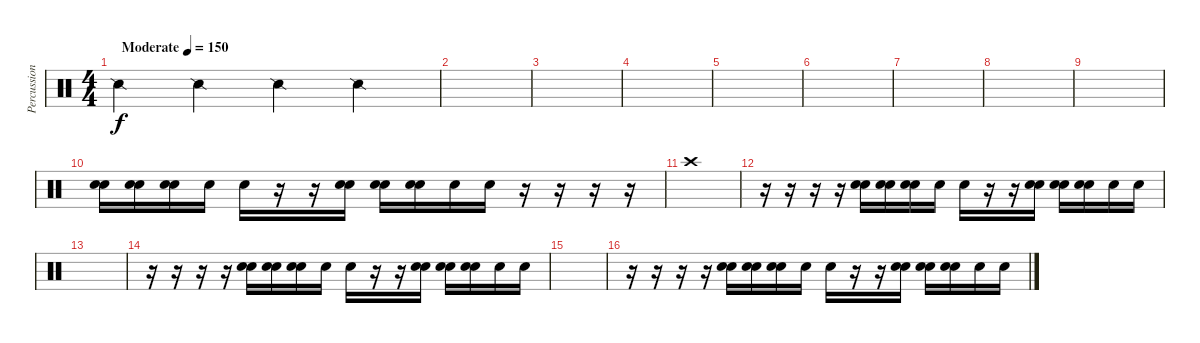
\track ("Percussion" "Percussion") {instrument percussion}
\staff {score}
\articulation defaults
\ts (4 4)
\tempo (150 "Moderate")
\clef neutral
\ks c "Snare (side stick) 2".4{dy f} "Snare (side stick) 2".4 "Snare (side stick) 2".4 "Snare (side stick) 2".4
|
|
|
|
|
|
|
|
|
("Snare (hit) 2" "Snare (hit) 2").16 ("Snare (hit) 2" "Snare (hit) 2").16 ("Snare (hit) 2" "Snare (hit) 2").16 "Snare (hit) 2".16 "Snare (hit) 2".16 r.16 r.16 ("Snare (hit) 2" "Snare (hit) 2").16 ("Snare (hit) 2" "Snare (hit) 2").16 ("Snare (hit) 2" "Snare (hit) 2").16 "Snare (hit) 2".16 "Snare (hit) 2".16 r.16 r.16 r.16 r.16 |
"Crash high (hit)".1 |
r.16 r.16 r.16 r.16 ("Snare (hit) 2" "Snare (hit) 2").16 ("Snare (hit) 2" "Snare (hit) 2").16 ("Snare (hit) 2" "Snare (hit) 2").16 "Snare (hit) 2".16 "Snare (hit) 2".16 r.16 r.16 ("Snare (hit) 2" "Snare (hit) 2").16 ("Snare (hit) 2" "Snare (hit) 2").16 ("Snare (hit) 2" "Snare (hit) 2").16 "Snare (hit) 2".16 "Snare (hit) 2".16 |
|
r.16 r.16 r.16 r.16 ("Snare (hit) 2" "Snare (hit) 2").16 ("Snare (hit) 2" "Snare (hit) 2").16 ("Snare (hit) 2" "Snare (hit) 2").16 "Snare (hit) 2".16 "Snare (hit) 2".16 r.16 r.16 ("Snare (hit) 2" "Snare (hit) 2").16 ("Snare (hit) 2" "Snare (hit) 2").16 ("Snare (hit) 2" "Snare (hit) 2").16 "Snare (hit) 2".16 "Snare (hit) 2".16 |
|
r.16 r.16 r.16 r.16 ("Snare (hit) 2" "Snare (hit) 2").16 ("Snare (hit) 2" "Snare (hit) 2").16 ("Snare (hit) 2" "Snare (hit) 2").16 "Snare (hit) 2".16 "Snare (hit) 2".16 r.16 r.16 ("Snare (hit) 2" "Snare (hit) 2").16 ("Snare (hit) 2" "Snare (hit) 2").16 ("Snare (hit) 2" "Snare (hit) 2").16 "Snare (hit) 2".16 "Snare (hit) 2".16
